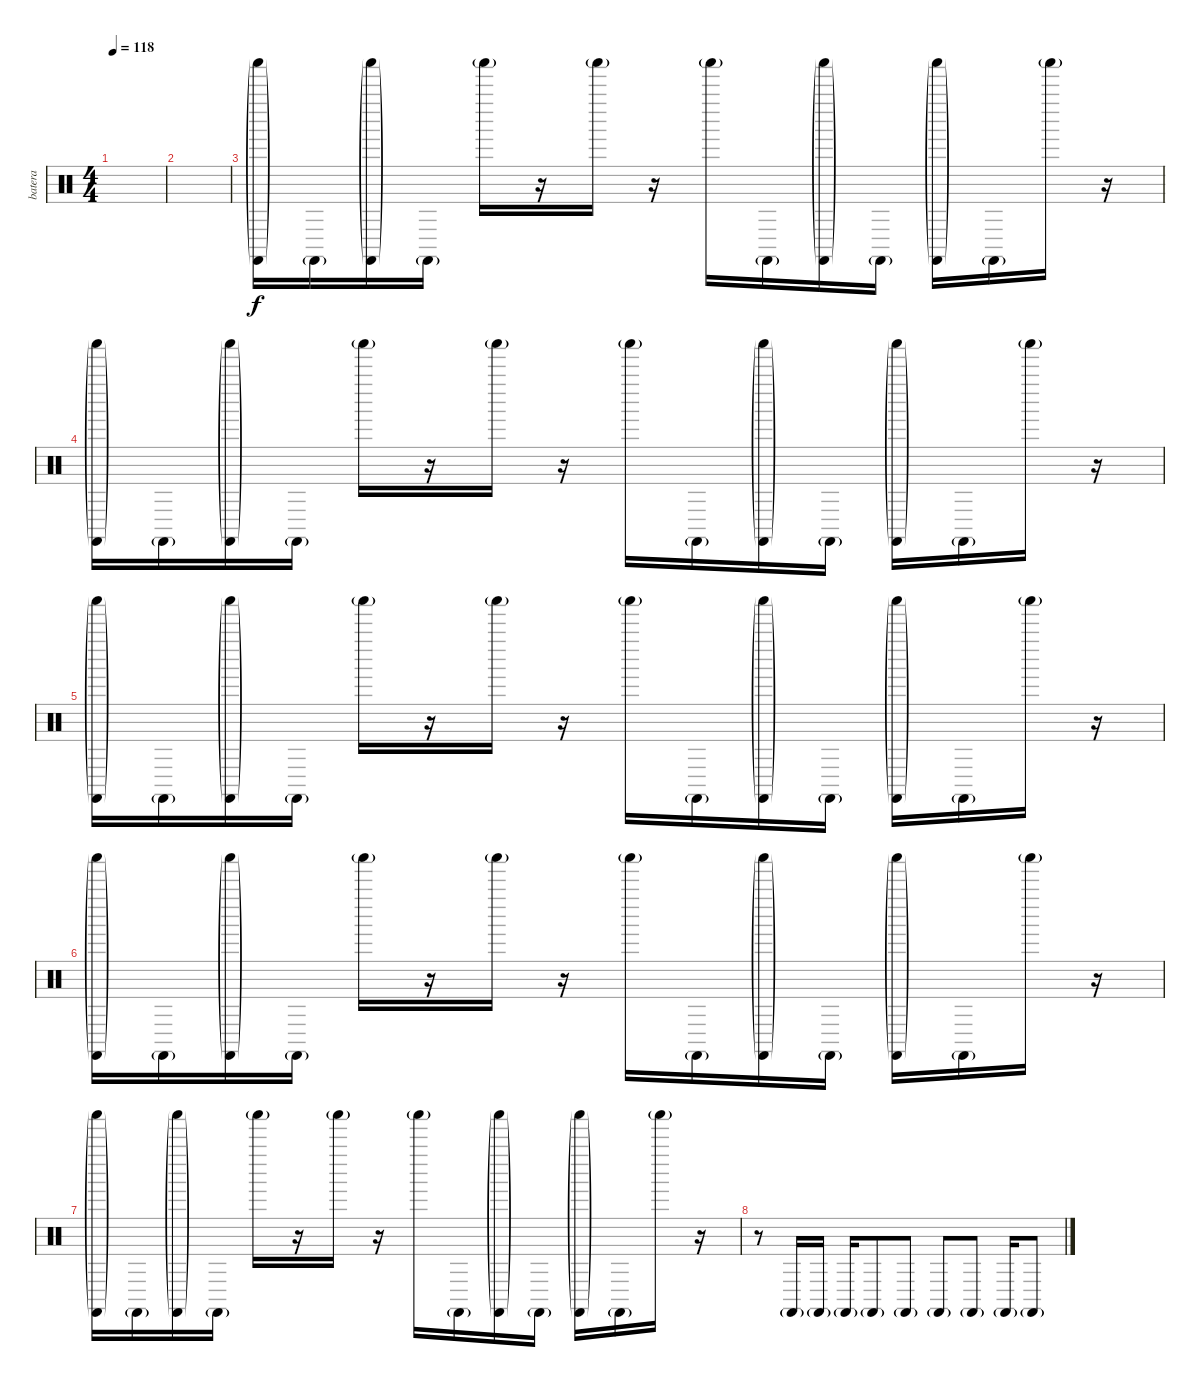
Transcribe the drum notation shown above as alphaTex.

\track ("batera" "batera") {instrument percussion}
\staff {score}
\articulation defaults
\ts (4 4)
\tempo 118
\clef neutral
\ks c
|
|
("Castanets (hit)"{g} "Shaker (hit)"{g}).16 "Castanets (hit)"{g}.16 ("Castanets (hit)"{g} "Shaker (hit)"{g}).16 "Castanets (hit)"{g}.16 "Shaker (hit)"{g}.16 r.16 "Shaker (hit)"{g}.16 r.16 "Shaker (hit)"{g}.16 "Castanets (hit)"{g}.16 ("Castanets (hit)"{g} "Shaker (hit)"{g}).16 "Castanets (hit)"{g}.16 ("Castanets (hit)"{g} "Shaker (hit)"{g}).16 "Castanets (hit)"{g}.16 "Shaker (hit)"{g}.16 r.16 |
("Castanets (hit)"{g} "Shaker (hit)"{g}).16 "Castanets (hit)"{g}.16 ("Castanets (hit)"{g} "Shaker (hit)"{g}).16 "Castanets (hit)"{g}.16 "Shaker (hit)"{g}.16 r.16 "Shaker (hit)"{g}.16 r.16 "Shaker (hit)"{g}.16 "Castanets (hit)"{g}.16 ("Castanets (hit)"{g} "Shaker (hit)"{g}).16 "Castanets (hit)"{g}.16 ("Castanets (hit)"{g} "Shaker (hit)"{g}).16 "Castanets (hit)"{g}.16 "Shaker (hit)"{g}.16 r.16 |
("Castanets (hit)"{g} "Shaker (hit)"{g}).16 "Castanets (hit)"{g}.16 ("Castanets (hit)"{g} "Shaker (hit)"{g}).16 "Castanets (hit)"{g}.16 "Shaker (hit)"{g}.16 r.16 "Shaker (hit)"{g}.16 r.16 "Shaker (hit)"{g}.16 "Castanets (hit)"{g}.16 ("Castanets (hit)"{g} "Shaker (hit)"{g}).16 "Castanets (hit)"{g}.16 ("Castanets (hit)"{g} "Shaker (hit)"{g}).16 "Castanets (hit)"{g}.16 "Shaker (hit)"{g}.16 r.16 |
("Castanets (hit)"{g} "Shaker (hit)"{g}).16 "Castanets (hit)"{g}.16 ("Castanets (hit)"{g} "Shaker (hit)"{g}).16 "Castanets (hit)"{g}.16 "Shaker (hit)"{g}.16 r.16 "Shaker (hit)"{g}.16 r.16 "Shaker (hit)"{g}.16 "Castanets (hit)"{g}.16 ("Castanets (hit)"{g} "Shaker (hit)"{g}).16 "Castanets (hit)"{g}.16 ("Castanets (hit)"{g} "Shaker (hit)"{g}).16 "Castanets (hit)"{g}.16 "Shaker (hit)"{g}.16 r.16 |
("Castanets (hit)"{g} "Shaker (hit)"{g}).16 "Castanets (hit)"{g}.16 ("Castanets (hit)"{g} "Shaker (hit)"{g}).16 "Castanets (hit)"{g}.16 "Shaker (hit)"{g}.16 r.16 "Shaker (hit)"{g}.16 r.16 "Shaker (hit)"{g}.16 "Castanets (hit)"{g}.16 ("Castanets (hit)"{g} "Shaker (hit)"{g}).16 "Castanets (hit)"{g}.16 ("Castanets (hit)"{g} "Shaker (hit)"{g}).16 "Castanets (hit)"{g}.16 "Shaker (hit)"{g}.16 r.16 |
r.8 "Castanets (hit)"{g}.16 "Castanets (hit)"{g}.16 "Castanets (hit)"{g}.16 "Castanets (hit)"{g}.8 "Castanets (hit)"{g}.8 "Castanets (hit)"{g}.8 "Castanets (hit)"{g}.8 "Castanets (hit)"{g}.16 "Castanets (hit)"{g}.8
